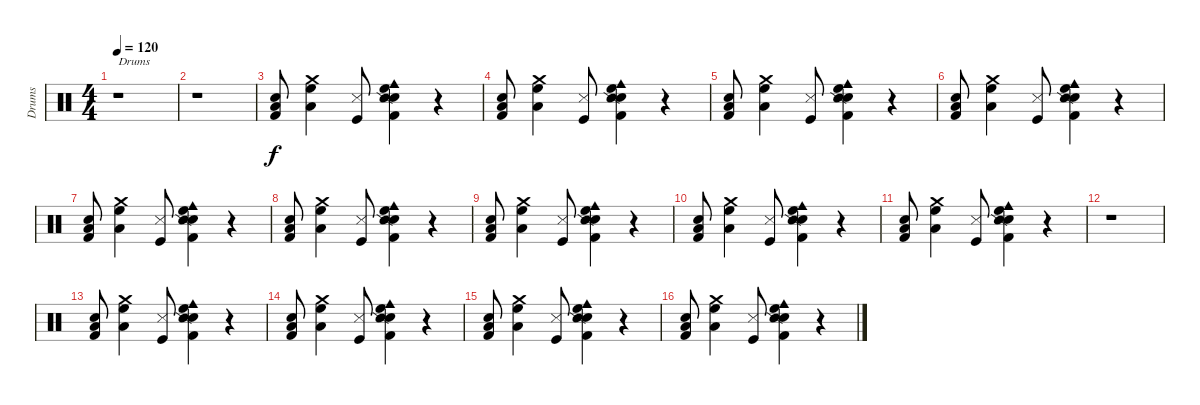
\track ("Drums" "Drums") {instrument percussion}
\staff {score}
\articulation defaults
\ts (4 4)
\tempo 120
\clef neutral
\ks c
r.1{txt "Drums" dy f} |
r.1 |
("Kick (hit) 2" "Low Floor Tom (hit)" "Electric Snare (hit)").8 ("Crash medium (hit)" "High Floor Tom (hit)" "Low Tom (hit)").4 ("Kick (hit)" "Snare (side stick) 3").8 ("Electric Snare (hit)" "High Floor Tom (hit)" "Snare (side stick) 2" "Cowbell medium (hit)" "Kick (hit) 2").4 r.4 |
("Kick (hit) 2" "Low Floor Tom (hit)" "Electric Snare (hit)").8 ("Crash medium (hit)" "High Floor Tom (hit)" "Low Tom (hit)").4 ("Kick (hit)" "Snare (side stick) 3").8 ("Electric Snare (hit)" "High Floor Tom (hit)" "Snare (side stick) 2" "Cowbell medium (hit)" "Kick (hit) 2").4 r.4 |
("Kick (hit) 2" "Low Floor Tom (hit)" "Electric Snare (hit)").8 ("Crash medium (hit)" "High Floor Tom (hit)" "Low Tom (hit)").4 ("Kick (hit)" "Snare (side stick) 3").8 ("Electric Snare (hit)" "High Floor Tom (hit)" "Snare (side stick) 2" "Cowbell medium (hit)" "Kick (hit) 2").4 r.4 |
("Kick (hit) 2" "Low Floor Tom (hit)" "Electric Snare (hit)").8 ("Crash medium (hit)" "High Floor Tom (hit)" "Low Tom (hit)").4 ("Kick (hit)" "Snare (side stick) 3").8 ("Electric Snare (hit)" "High Floor Tom (hit)" "Snare (side stick) 2" "Cowbell medium (hit)" "Kick (hit) 2").4 r.4 |
("Kick (hit) 2" "Low Floor Tom (hit)" "Electric Snare (hit)").8 ("Crash medium (hit)" "High Floor Tom (hit)" "Low Tom (hit)").4 ("Kick (hit)" "Snare (side stick) 3").8 ("Electric Snare (hit)" "High Floor Tom (hit)" "Snare (side stick) 2" "Cowbell medium (hit)" "Kick (hit) 2").4 r.4 |
("Kick (hit) 2" "Low Floor Tom (hit)" "Electric Snare (hit)").8 ("Crash medium (hit)" "High Floor Tom (hit)" "Low Tom (hit)").4 ("Kick (hit)" "Snare (side stick) 3").8 ("Electric Snare (hit)" "High Floor Tom (hit)" "Snare (side stick) 2" "Cowbell medium (hit)" "Kick (hit) 2").4 r.4 |
("Kick (hit) 2" "Low Floor Tom (hit)" "Electric Snare (hit)").8 ("Crash medium (hit)" "High Floor Tom (hit)" "Low Tom (hit)").4 ("Kick (hit)" "Snare (side stick) 3").8 ("Electric Snare (hit)" "High Floor Tom (hit)" "Snare (side stick) 2" "Cowbell medium (hit)" "Kick (hit) 2").4 r.4 |
("Kick (hit) 2" "Low Floor Tom (hit)" "Electric Snare (hit)").8 ("Crash medium (hit)" "High Floor Tom (hit)" "Low Tom (hit)").4 ("Kick (hit)" "Snare (side stick) 3").8 ("Electric Snare (hit)" "High Floor Tom (hit)" "Snare (side stick) 2" "Cowbell medium (hit)" "Kick (hit) 2").4 r.4 |
("Kick (hit) 2" "Low Floor Tom (hit)" "Electric Snare (hit)").8 ("Crash medium (hit)" "High Floor Tom (hit)" "Low Tom (hit)").4 ("Kick (hit)" "Snare (side stick) 3").8 ("Electric Snare (hit)" "High Floor Tom (hit)" "Snare (side stick) 2" "Cowbell medium (hit)" "Kick (hit) 2").4 r.4 |
r.1 |
("Kick (hit) 2" "Low Floor Tom (hit)" "Electric Snare (hit)").8 ("Crash medium (hit)" "High Floor Tom (hit)" "Low Tom (hit)").4 ("Kick (hit)" "Snare (side stick) 3").8 ("Electric Snare (hit)" "High Floor Tom (hit)" "Snare (side stick) 2" "Cowbell medium (hit)" "Kick (hit) 2").4 r.4 |
("Kick (hit) 2" "Low Floor Tom (hit)" "Electric Snare (hit)").8 ("Crash medium (hit)" "High Floor Tom (hit)" "Low Tom (hit)").4 ("Kick (hit)" "Snare (side stick) 3").8 ("Electric Snare (hit)" "High Floor Tom (hit)" "Snare (side stick) 2" "Cowbell medium (hit)" "Kick (hit) 2").4 r.4 |
("Kick (hit) 2" "Low Floor Tom (hit)" "Electric Snare (hit)").8 ("Crash medium (hit)" "High Floor Tom (hit)" "Low Tom (hit)").4 ("Kick (hit)" "Snare (side stick) 3").8 ("Electric Snare (hit)" "High Floor Tom (hit)" "Snare (side stick) 2" "Cowbell medium (hit)" "Kick (hit) 2").4 r.4 |
("Kick (hit) 2" "Low Floor Tom (hit)" "Electric Snare (hit)").8 ("Crash medium (hit)" "High Floor Tom (hit)" "Low Tom (hit)").4 ("Kick (hit)" "Snare (side stick) 3").8 ("Electric Snare (hit)" "High Floor Tom (hit)" "Snare (side stick) 2" "Cowbell medium (hit)" "Kick (hit) 2").4 r.4
